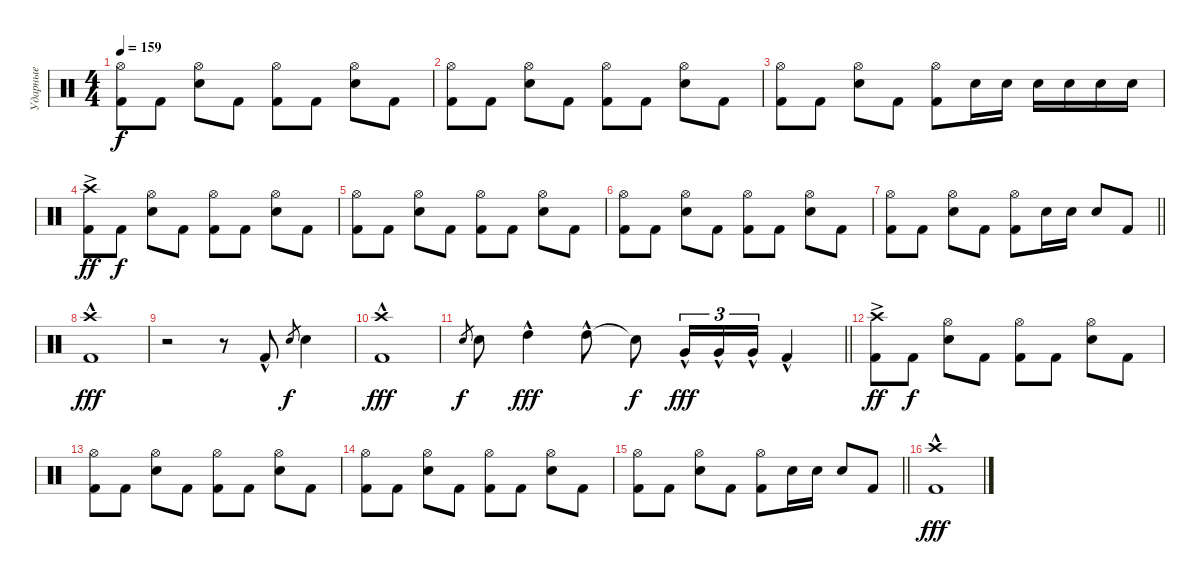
\track ("Ударные" "Ударные") {instrument percussion}
\staff {score}
\articulation defaults
\ts (4 4)
\tempo 159
\clef neutral
\ks c
("Kick (hit) 2" "Hi-Hat (open)").8{dy f} "Kick (hit) 2".8 ("Snare (hit) 2" "Hi-Hat (open)").8 "Kick (hit) 2".8 ("Kick (hit) 2" "Hi-Hat (open)").8 "Kick (hit) 2".8 ("Snare (hit) 2" "Hi-Hat (open)").8 "Kick (hit) 2".8 |
("Kick (hit) 2" "Hi-Hat (open)").8 "Kick (hit) 2".8 ("Snare (hit) 2" "Hi-Hat (open)").8 "Kick (hit) 2".8 ("Kick (hit) 2" "Hi-Hat (open)").8 "Kick (hit) 2".8 ("Snare (hit) 2" "Hi-Hat (open)").8 "Kick (hit) 2".8 |
("Kick (hit) 2" "Hi-Hat (open)").8 "Kick (hit) 2".8 ("Snare (hit) 2" "Hi-Hat (open)").8 "Kick (hit) 2".8 ("Kick (hit) 2" "Hi-Hat (open)").8 "Snare (hit) 2".16 "Snare (hit) 2".16 "Snare (hit) 2".16 "Snare (hit) 2".16 "Snare (hit) 2".16 "Snare (hit) 2".16 |
("Kick (hit) 2" "Crash high (hit)"{ac}).8{dy ff} "Kick (hit) 2".8{dy f} ("Snare (hit) 2" "Hi-Hat (open)").8 "Kick (hit) 2".8 ("Kick (hit) 2" "Hi-Hat (open)").8 "Kick (hit) 2".8 ("Snare (hit) 2" "Hi-Hat (open)").8 "Kick (hit) 2".8 |
("Kick (hit) 2" "Hi-Hat (open)").8 "Kick (hit) 2".8 ("Snare (hit) 2" "Hi-Hat (open)").8 "Kick (hit) 2".8 ("Kick (hit) 2" "Hi-Hat (open)").8 "Kick (hit) 2".8 ("Snare (hit) 2" "Hi-Hat (open)").8 "Kick (hit) 2".8 |
("Kick (hit) 2" "Hi-Hat (open)").8 "Kick (hit) 2".8 ("Snare (hit) 2" "Hi-Hat (open)").8 "Kick (hit) 2".8 ("Kick (hit) 2" "Hi-Hat (open)").8 "Kick (hit) 2".8 ("Snare (hit) 2" "Hi-Hat (open)").8 "Kick (hit) 2".8 |
\barLineRight lightlight
("Kick (hit) 2" "Hi-Hat (open)").8 "Kick (hit) 2".8 ("Snare (hit) 2" "Hi-Hat (open)").8 "Kick (hit) 2".8 ("Kick (hit) 2" "Hi-Hat (open)").8 "Snare (hit) 2".16 "Snare (hit) 2".16 "Snare (hit) 2".8 "Kick (hit) 2".8 |
("Kick (hit) 2" "Crash high (hit)"{hac}).1{dy fff} |
r.2 r.8 "Kick (hit) 2"{hac}.8 "Snare (hit) 2".8{gr dy f} "Snare (hit) 2".4 |
("Kick (hit) 2" "Crash high (hit)"{hac}).1{dy fff} |
\barLineRight lightlight "Snare (hit) 2".8{gr dy f} "Snare (hit) 2".8 "High Tom (hit)"{hac}.4{dy fff} "High Tom (hit)"{hac}.8 "Snare (hit)"{t}.8{dy f} "Very Low Tom (hit)"{hac}.16{tu (3 2) dy fff} "Very Low Tom (hit)"{hac}.16{tu (3 2)} "Very Low Tom (hit)"{hac}.16{tu (3 2)} "Kick (hit) 2"{hac}.4
|
("Kick (hit) 2" "Crash high (hit)"{ac}).8{dy ff} "Kick (hit) 2".8{dy f} ("Snare (hit) 2" "Hi-Hat (open)").8 "Kick (hit) 2".8 ("Kick (hit) 2" "Hi-Hat (open)").8 "Kick (hit) 2".8 ("Snare (hit) 2" "Hi-Hat (open)").8 "Kick (hit) 2".8 |
("Kick (hit) 2" "Hi-Hat (open)").8 "Kick (hit) 2".8 ("Snare (hit) 2" "Hi-Hat (open)").8 "Kick (hit) 2".8 ("Kick (hit) 2" "Hi-Hat (open)").8 "Kick (hit) 2".8 ("Snare (hit) 2" "Hi-Hat (open)").8 "Kick (hit) 2".8 |
("Kick (hit) 2" "Hi-Hat (open)").8 "Kick (hit) 2".8 ("Snare (hit) 2" "Hi-Hat (open)").8 "Kick (hit) 2".8 ("Kick (hit) 2" "Hi-Hat (open)").8 "Kick (hit) 2".8 ("Snare (hit) 2" "Hi-Hat (open)").8 "Kick (hit) 2".8 |
\barLineRight lightlight
("Kick (hit) 2" "Hi-Hat (open)").8 "Kick (hit) 2".8 ("Snare (hit) 2" "Hi-Hat (open)").8 "Kick (hit) 2".8 ("Kick (hit) 2" "Hi-Hat (open)").8 "Snare (hit) 2".16 "Snare (hit) 2".16 "Snare (hit) 2".8 "Kick (hit) 2".8 |
("Kick (hit) 2" "Crash high (hit)"{hac}).1{dy fff}
